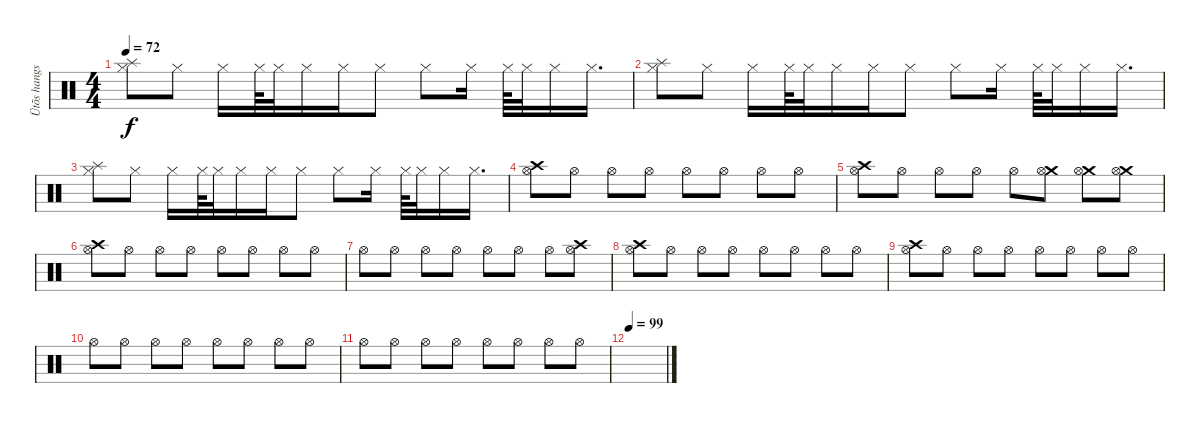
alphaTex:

\track ("Ütõs hangszer" "Ütõs hangs") {instrument percussion}
\staff {score}
\articulation defaults
\ts (4 4)
\tempo 72
\clef neutral
\ks c
("Hi-Hat (closed)" "Splash (hit)").8{dy f} "Hi-Hat (closed)".8 "Hi-Hat (closed)".16 "Hi-Hat (closed)".64 "Hi-Hat (closed)".32 "Hi-Hat (closed)".16 "Hi-Hat (closed)".16 "Hi-Hat (closed)".8 "Hi-Hat (closed)".8 "Hi-Hat (closed)".16 "Hi-Hat (closed)".64 "Hi-Hat (closed)".32 "Hi-Hat (closed)".16 "Hi-Hat (closed)".16{d} |
("Hi-Hat (closed)" "Splash (hit)").8 "Hi-Hat (closed)".8 "Hi-Hat (closed)".16 "Hi-Hat (closed)".64 "Hi-Hat (closed)".32 "Hi-Hat (closed)".16 "Hi-Hat (closed)".16 "Hi-Hat (closed)".8 "Hi-Hat (closed)".8 "Hi-Hat (closed)".16 "Hi-Hat (closed)".64 "Hi-Hat (closed)".32 "Hi-Hat (closed)".16 "Hi-Hat (closed)".16{d} |
("Hi-Hat (closed)" "Splash (hit)").8 "Hi-Hat (closed)".8 "Hi-Hat (closed)".16 "Hi-Hat (closed)".64 "Hi-Hat (closed)".32 "Hi-Hat (closed)".16 "Hi-Hat (closed)".16 "Hi-Hat (closed)".8 "Hi-Hat (closed)".8 "Hi-Hat (closed)".16 "Hi-Hat (closed)".64 "Hi-Hat (closed)".32 "Hi-Hat (closed)".16 "Hi-Hat (closed)".16{d} |
("Crash high (hit)" "Hi-Hat (open)").8 "Hi-Hat (open)".8 "Hi-Hat (open)".8 "Hi-Hat (open)".8 "Hi-Hat (open)".8 "Hi-Hat (open)".8 "Hi-Hat (open)".8 "Hi-Hat (open)".8 |
("Crash high (hit)" "Hi-Hat (open)").8 "Hi-Hat (open)".8 "Hi-Hat (open)".8 "Hi-Hat (open)".8 "Hi-Hat (open)".8 ("Crash medium (hit)" "Hi-Hat (open)").8 ("Crash medium (hit)" "Hi-Hat (open)").8 ("Crash medium (hit)" "Hi-Hat (open)").8 |
("Crash high (hit)" "Hi-Hat (open)").8 "Hi-Hat (open)".8 "Hi-Hat (open)".8 "Hi-Hat (open)".8 "Hi-Hat (open)".8 "Hi-Hat (open)".8 "Hi-Hat (open)".8 "Hi-Hat (open)".8 |
"Hi-Hat (open)".8 "Hi-Hat (open)".8 "Hi-Hat (open)".8 "Hi-Hat (open)".8 "Hi-Hat (open)".8 "Hi-Hat (open)".8 "Hi-Hat (open)".8 ("Crash high (hit)" "Hi-Hat (open)").8 |
("Crash high (hit)" "Hi-Hat (open)").8 "Hi-Hat (open)".8 "Hi-Hat (open)".8 "Hi-Hat (open)".8 "Hi-Hat (open)".8 "Hi-Hat (open)".8 "Hi-Hat (open)".8 "Hi-Hat (open)".8 |
("Crash high (hit)" "Hi-Hat (open)").8 "Hi-Hat (open)".8 "Hi-Hat (open)".8 "Hi-Hat (open)".8 "Hi-Hat (open)".8 "Hi-Hat (open)".8 "Hi-Hat (open)".8 "Hi-Hat (open)".8 |
"Hi-Hat (open)".8 "Hi-Hat (open)".8 "Hi-Hat (open)".8 "Hi-Hat (open)".8 "Hi-Hat (open)".8 "Hi-Hat (open)".8 "Hi-Hat (open)".8 "Hi-Hat (open)".8 |
"Hi-Hat (open)".8 "Hi-Hat (open)".8 "Hi-Hat (open)".8 "Hi-Hat (open)".8 "Hi-Hat (open)".8 "Hi-Hat (open)".8 "Hi-Hat (open)".8 "Hi-Hat (open)".8 |
\tempo 99
